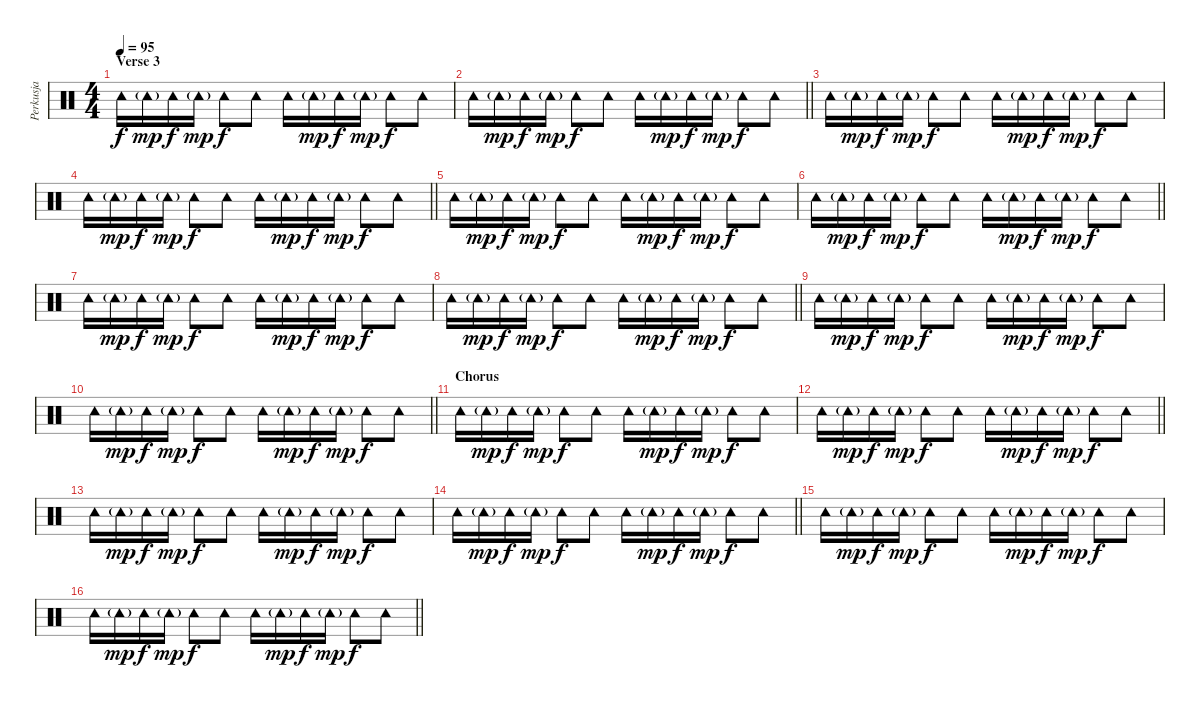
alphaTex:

\track ("Perkusja" "Perkusja") {instrument percussion}
\staff {score}
\articulation defaults
\ts (4 4)
\section ("" "Verse 3")
\tempo 95
\clef neutral
\ks c "Tambourine (hit)".16{dy f} "Tambourine (hit)"{g}.16{dy mp} "Tambourine (hit)".16{dy f} "Tambourine (hit)"{g}.16{dy mp} "Tambourine (hit)".8{dy f} "Tambourine (hit)".8 "Tambourine (hit)".16 "Tambourine (hit)"{g}.16{dy mp} "Tambourine (hit)".16{dy f} "Tambourine (hit)"{g}.16{dy mp} "Tambourine (hit)".8{dy f} "Tambourine (hit)".8
|
\barLineRight lightlight "Tambourine (hit)".16 "Tambourine (hit)"{g}.16{dy mp} "Tambourine (hit)".16{dy f} "Tambourine (hit)"{g}.16{dy mp} "Tambourine (hit)".8{dy f} "Tambourine (hit)".8 "Tambourine (hit)".16 "Tambourine (hit)"{g}.16{dy mp} "Tambourine (hit)".16{dy f} "Tambourine (hit)"{g}.16{dy mp} "Tambourine (hit)".8{dy f} "Tambourine (hit)".8
|
"Tambourine (hit)".16 "Tambourine (hit)"{g}.16{dy mp} "Tambourine (hit)".16{dy f} "Tambourine (hit)"{g}.16{dy mp} "Tambourine (hit)".8{dy f} "Tambourine (hit)".8 "Tambourine (hit)".16 "Tambourine (hit)"{g}.16{dy mp} "Tambourine (hit)".16{dy f} "Tambourine (hit)"{g}.16{dy mp} "Tambourine (hit)".8{dy f} "Tambourine (hit)".8 |
\barLineRight lightlight "Tambourine (hit)".16 "Tambourine (hit)"{g}.16{dy mp} "Tambourine (hit)".16{dy f} "Tambourine (hit)"{g}.16{dy mp} "Tambourine (hit)".8{dy f} "Tambourine (hit)".8 "Tambourine (hit)".16 "Tambourine (hit)"{g}.16{dy mp} "Tambourine (hit)".16{dy f} "Tambourine (hit)"{g}.16{dy mp} "Tambourine (hit)".8{dy f} "Tambourine (hit)".8
|
"Tambourine (hit)".16 "Tambourine (hit)"{g}.16{dy mp} "Tambourine (hit)".16{dy f} "Tambourine (hit)"{g}.16{dy mp} "Tambourine (hit)".8{dy f} "Tambourine (hit)".8 "Tambourine (hit)".16 "Tambourine (hit)"{g}.16{dy mp} "Tambourine (hit)".16{dy f} "Tambourine (hit)"{g}.16{dy mp} "Tambourine (hit)".8{dy f} "Tambourine (hit)".8 |
\barLineRight lightlight "Tambourine (hit)".16 "Tambourine (hit)"{g}.16{dy mp} "Tambourine (hit)".16{dy f} "Tambourine (hit)"{g}.16{dy mp} "Tambourine (hit)".8{dy f} "Tambourine (hit)".8 "Tambourine (hit)".16 "Tambourine (hit)"{g}.16{dy mp} "Tambourine (hit)".16{dy f} "Tambourine (hit)"{g}.16{dy mp} "Tambourine (hit)".8{dy f} "Tambourine (hit)".8
|
"Tambourine (hit)".16 "Tambourine (hit)"{g}.16{dy mp} "Tambourine (hit)".16{dy f} "Tambourine (hit)"{g}.16{dy mp} "Tambourine (hit)".8{dy f} "Tambourine (hit)".8 "Tambourine (hit)".16 "Tambourine (hit)"{g}.16{dy mp} "Tambourine (hit)".16{dy f} "Tambourine (hit)"{g}.16{dy mp} "Tambourine (hit)".8{dy f} "Tambourine (hit)".8 |
\barLineRight lightlight "Tambourine (hit)".16 "Tambourine (hit)"{g}.16{dy mp} "Tambourine (hit)".16{dy f} "Tambourine (hit)"{g}.16{dy mp} "Tambourine (hit)".8{dy f} "Tambourine (hit)".8 "Tambourine (hit)".16 "Tambourine (hit)"{g}.16{dy mp} "Tambourine (hit)".16{dy f} "Tambourine (hit)"{g}.16{dy mp} "Tambourine (hit)".8{dy f} "Tambourine (hit)".8
|
"Tambourine (hit)".16 "Tambourine (hit)"{g}.16{dy mp} "Tambourine (hit)".16{dy f} "Tambourine (hit)"{g}.16{dy mp} "Tambourine (hit)".8{dy f} "Tambourine (hit)".8 "Tambourine (hit)".16 "Tambourine (hit)"{g}.16{dy mp} "Tambourine (hit)".16{dy f} "Tambourine (hit)"{g}.16{dy mp} "Tambourine (hit)".8{dy f} "Tambourine (hit)".8 |
\barLineRight lightlight "Tambourine (hit)".16 "Tambourine (hit)"{g}.16{dy mp} "Tambourine (hit)".16{dy f} "Tambourine (hit)"{g}.16{dy mp} "Tambourine (hit)".8{dy f} "Tambourine (hit)".8 "Tambourine (hit)".16 "Tambourine (hit)"{g}.16{dy mp} "Tambourine (hit)".16{dy f} "Tambourine (hit)"{g}.16{dy mp} "Tambourine (hit)".8{dy f} "Tambourine (hit)".8
|
\section ("" "Chorus")
"Tambourine (hit)".16 "Tambourine (hit)"{g}.16{dy mp} "Tambourine (hit)".16{dy f} "Tambourine (hit)"{g}.16{dy mp} "Tambourine (hit)".8{dy f} "Tambourine (hit)".8 "Tambourine (hit)".16 "Tambourine (hit)"{g}.16{dy mp} "Tambourine (hit)".16{dy f} "Tambourine (hit)"{g}.16{dy mp} "Tambourine (hit)".8{dy f} "Tambourine (hit)".8 |
\barLineRight lightlight "Tambourine (hit)".16 "Tambourine (hit)"{g}.16{dy mp} "Tambourine (hit)".16{dy f} "Tambourine (hit)"{g}.16{dy mp} "Tambourine (hit)".8{dy f} "Tambourine (hit)".8 "Tambourine (hit)".16 "Tambourine (hit)"{g}.16{dy mp} "Tambourine (hit)".16{dy f} "Tambourine (hit)"{g}.16{dy mp} "Tambourine (hit)".8{dy f} "Tambourine (hit)".8
|
"Tambourine (hit)".16 "Tambourine (hit)"{g}.16{dy mp} "Tambourine (hit)".16{dy f} "Tambourine (hit)"{g}.16{dy mp} "Tambourine (hit)".8{dy f} "Tambourine (hit)".8 "Tambourine (hit)".16 "Tambourine (hit)"{g}.16{dy mp} "Tambourine (hit)".16{dy f} "Tambourine (hit)"{g}.16{dy mp} "Tambourine (hit)".8{dy f} "Tambourine (hit)".8 |
\barLineRight lightlight "Tambourine (hit)".16 "Tambourine (hit)"{g}.16{dy mp} "Tambourine (hit)".16{dy f} "Tambourine (hit)"{g}.16{dy mp} "Tambourine (hit)".8{dy f} "Tambourine (hit)".8 "Tambourine (hit)".16 "Tambourine (hit)"{g}.16{dy mp} "Tambourine (hit)".16{dy f} "Tambourine (hit)"{g}.16{dy mp} "Tambourine (hit)".8{dy f} "Tambourine (hit)".8
|
"Tambourine (hit)".16 "Tambourine (hit)"{g}.16{dy mp} "Tambourine (hit)".16{dy f} "Tambourine (hit)"{g}.16{dy mp} "Tambourine (hit)".8{dy f} "Tambourine (hit)".8 "Tambourine (hit)".16 "Tambourine (hit)"{g}.16{dy mp} "Tambourine (hit)".16{dy f} "Tambourine (hit)"{g}.16{dy mp} "Tambourine (hit)".8{dy f} "Tambourine (hit)".8 |
\barLineRight lightlight "Tambourine (hit)".16 "Tambourine (hit)"{g}.16{dy mp} "Tambourine (hit)".16{dy f} "Tambourine (hit)"{g}.16{dy mp} "Tambourine (hit)".8{dy f} "Tambourine (hit)".8 "Tambourine (hit)".16 "Tambourine (hit)"{g}.16{dy mp} "Tambourine (hit)".16{dy f} "Tambourine (hit)"{g}.16{dy mp} "Tambourine (hit)".8{dy f} "Tambourine (hit)".8
